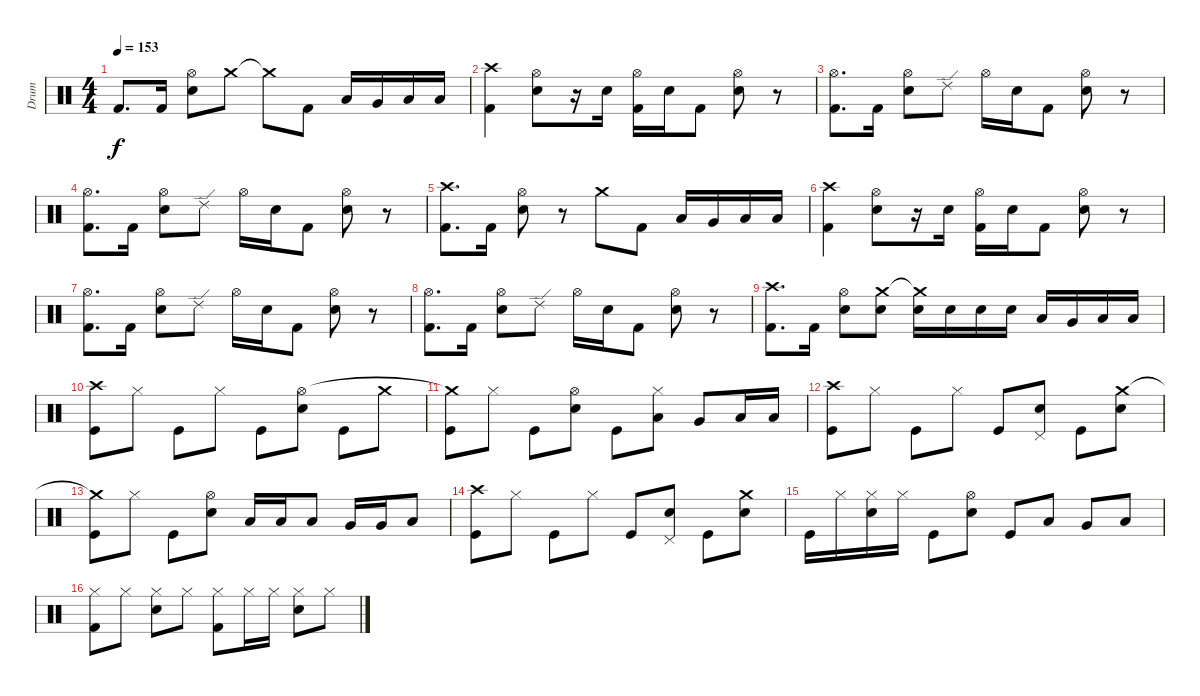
\track ("Drum" "Drum") {instrument percussion}
\staff {score}
\articulation defaults
\ts (4 4)
\tempo 153
\clef neutral
\ks c "Kick (hit) 2".8{d dy f} "Kick (hit) 2".16
("Hi-Hat (open)" "Snare (hit) 2").8 "Crash medium (hit)".8 "Crash medium (hit)"{t}.8 "Kick (hit) 2".8 "Low Tom (hit)".16 "Very Low Tom (hit)".16 "Low Floor Tom (hit)".16 "Low Floor Tom (hit)".16 |
("Crash high (hit)" "Kick (hit) 2").4 ("Hi-Hat (open)" "Snare (hit) 2").8 r.16 "Snare (hit) 2".16 ("Hi-Hat (open)" "Kick (hit) 2").16 "Snare (hit) 2".16 "Kick (hit) 2".8 ("Hi-Hat (open)" "Snare (hit) 2").8 r.8 |
("Hi-Hat (open)" "Kick (hit) 2").8{d} "Kick (hit) 2".16 ("Hi-Hat (open)" "Snare (hit) 2").8 "Ride (edge) 2".8 "Hi-Hat (open)".16 "Electric Snare (hit)".16 "Kick (hit) 2".8 ("Hi-Hat (open)" "Snare (hit) 2").8 r.8 |
("Hi-Hat (open)" "Kick (hit) 2").8{d} "Kick (hit) 2".16 ("Hi-Hat (open)" "Snare (hit) 2").8 "Ride (edge) 2".8 "Hi-Hat (open)".16 "Electric Snare (hit)".16 "Kick (hit) 2".8 ("Hi-Hat (open)" "Snare (hit) 2").8 r.8 |
("Crash high (hit)" "Kick (hit) 2").8{d} "Kick (hit) 2".16 ("Hi-Hat (open)" "Snare (hit) 2").8 r.8 "Crash medium (hit)".8 "Kick (hit) 2".8 "Low Tom (hit)".16 "Very Low Tom (hit)".16 "Low Floor Tom (hit)".16 "Low Floor Tom (hit)".16 |
("Crash high (hit)" "Kick (hit) 2").4 ("Hi-Hat (open)" "Snare (hit) 2").8 r.16 "Snare (hit) 2".16 ("Hi-Hat (open)" "Kick (hit) 2").16 "Snare (hit) 2".16 "Kick (hit) 2".8 ("Hi-Hat (open)" "Snare (hit) 2").8 r.8 |
("Hi-Hat (open)" "Kick (hit) 2").8{d} "Kick (hit) 2".16 ("Hi-Hat (open)" "Snare (hit) 2").8 "Ride (edge) 2".8 "Hi-Hat (open)".16 "Electric Snare (hit)".16 "Kick (hit) 2".8 ("Hi-Hat (open)" "Snare (hit) 2").8 r.8 |
("Hi-Hat (open)" "Kick (hit) 2").8{d} "Kick (hit) 2".16 ("Hi-Hat (open)" "Snare (hit) 2").8 "Ride (edge) 2".8 "Hi-Hat (open)".16 "Electric Snare (hit)".16 "Kick (hit) 2".8 ("Hi-Hat (open)" "Snare (hit) 2").8 r.8 |
("Crash high (hit)" "Kick (hit) 2").8{d} "Kick (hit) 2".16 ("Hi-Hat (open)" "Snare (hit) 2").8 ("Crash medium (hit)" "Electric Snare (hit)").8 ("Crash medium (hit)"{t} "Electric Snare (hit)").16 "Electric Snare (hit)".16 "Electric Snare (hit)".16 "Electric Snare (hit)".16 "Low Tom (hit)".16 "Very Low Tom (hit)".16 "Low Floor Tom (hit)".16 "Low Floor Tom (hit)".16 |
("Kick (hit)" "Crash high (hit)").8 "Hi-Hat (closed)".8 "Kick (hit)".8 "Hi-Hat (closed)".8 "Kick (hit)".8 ("Snare (hit) 2" "Hi-Hat (open)").8 "Kick (hit)".8 "Crash medium (hit)".8 |
("Kick (hit)" "Crash medium (hit)"{t}).8 "Hi-Hat (closed)".8 "Kick (hit)".8 ("Snare (hit) 2" "Hi-Hat (open)").8 "Kick (hit)".8 ("Hi-Hat (closed)" "Low Tom (hit)").8 "Very Low Tom (hit)".8 "Low Floor Tom (hit)".16 "Low Floor Tom (hit)".16 |
("Kick (hit)" "Crash high (hit)").8 "Hi-Hat (closed)".8 "Kick (hit)".8 "Hi-Hat (closed)".8 "Kick (hit)".8 ("Snare (hit) 2" "Pedal Hi-Hat (hit)").8 "Kick (hit)".8 ("Electric Snare (hit)" "Crash medium (hit)").8 |
("Kick (hit)" "Crash medium (hit)"{t}).8 "Hi-Hat (closed)".8 "Kick (hit)".8 ("Snare (hit) 2" "Hi-Hat (open)").8 "Low Tom (hit)".16 "Low Tom (hit)".16 "Low Tom (hit)".8 "Very Low Tom (hit)".16 "Very Low Tom (hit)".16 "Low Floor Tom (hit)".8 |
("Kick (hit)" "Crash high (hit)").8 "Hi-Hat (closed)".8 "Kick (hit)".8 "Hi-Hat (closed)".8 "Kick (hit)".8 ("Snare (hit) 2" "Pedal Hi-Hat (hit)").8 "Kick (hit)".8 ("Electric Snare (hit)" "Crash medium (hit)").8 |
"Kick (hit)".16 "Hi-Hat (closed)".16 ("Hi-Hat (closed)" "Snare (hit) 2").16 "Hi-Hat (closed)".16 "Kick (hit)".8 ("Electric Snare (hit)" "Hi-Hat (open)").8 "Kick (hit)".8 "Low Tom (hit)".8 "Very Low Tom (hit)".8 "Low Floor Tom (hit)".8 |
("Hi-Hat (closed)" "Kick (hit) 2").8 "Hi-Hat (closed)".8 ("Hi-Hat (closed)" "Electric Snare (hit)").8 "Hi-Hat (closed)".8 ("Hi-Hat (closed)" "Kick (hit) 2").8 "Hi-Hat (closed)".16 "Hi-Hat (closed)".16 ("Hi-Hat (closed)" "Electric Snare (hit)").8 "Hi-Hat (closed)".8
